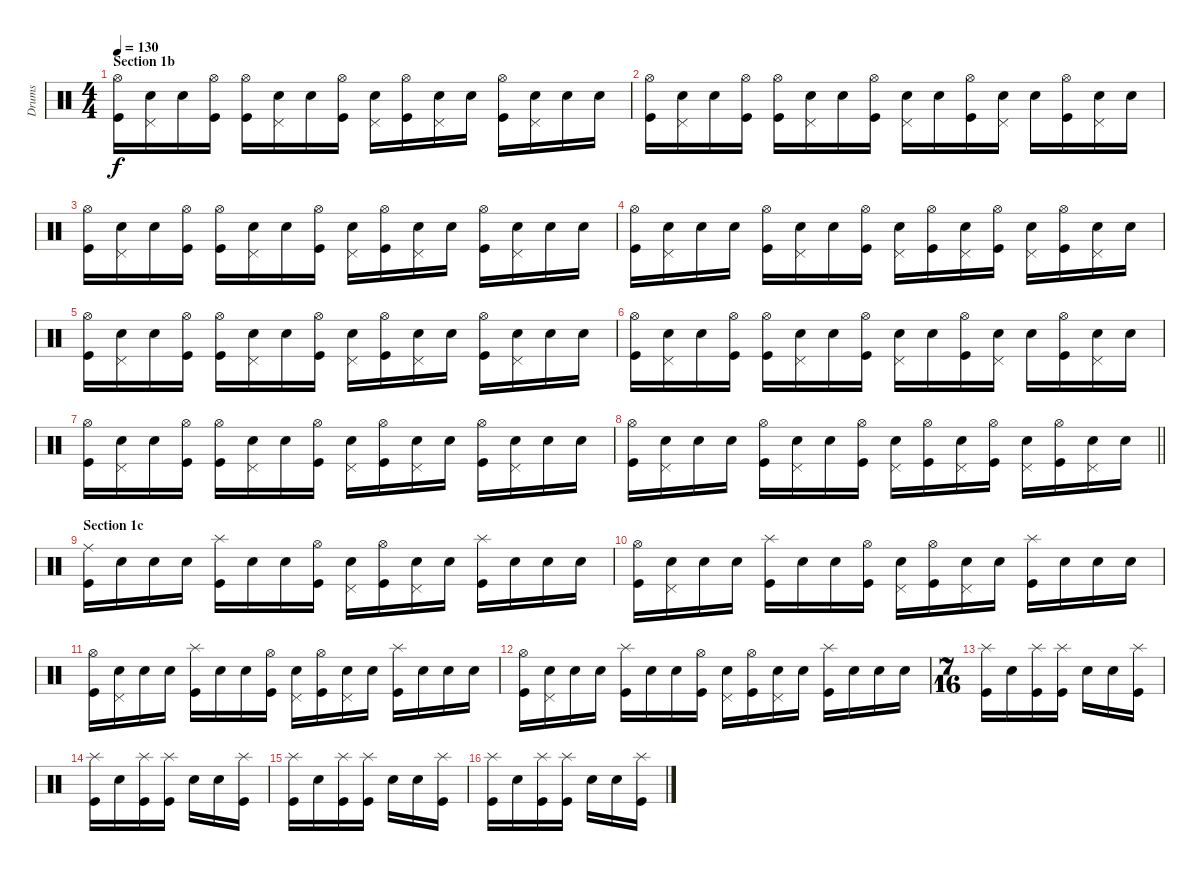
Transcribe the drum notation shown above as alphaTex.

\track ("Drums" "Drums") {instrument percussion}
\staff {score}
\articulation defaults
\ts (4 4)
\section ("" "Section 1b")
\tempo 130
\clef neutral
\ks c
("Hi-Hat (open)" "Kick (hit)").16{dy f} ("Pedal Hi-Hat (hit)" "Snare (hit) 2").16 "Snare (hit) 2".16 ("Hi-Hat (open)" "Kick (hit)").16 ("Hi-Hat (open)" "Kick (hit)").16 ("Pedal Hi-Hat (hit)" "Snare (hit) 2").16 "Snare (hit) 2".16 ("Hi-Hat (open)" "Kick (hit)").16 ("Pedal Hi-Hat (hit)" "Snare (hit) 2").16 ("Hi-Hat (open)" "Kick (hit)").16 ("Pedal Hi-Hat (hit)" "Snare (hit) 2").16 "Snare (hit) 2".16 ("Hi-Hat (open)" "Kick (hit)").16 ("Pedal Hi-Hat (hit)" "Snare (hit) 2").16 "Snare (hit) 2".16 "Snare (hit) 2".16 |
("Hi-Hat (open)" "Kick (hit)").16 ("Pedal Hi-Hat (hit)" "Snare (hit) 2").16 "Snare (hit) 2".16 ("Hi-Hat (open)" "Kick (hit)").16 ("Hi-Hat (open)" "Kick (hit)").16 ("Pedal Hi-Hat (hit)" "Snare (hit) 2").16 "Snare (hit) 2".16 ("Hi-Hat (open)" "Kick (hit)").16 ("Pedal Hi-Hat (hit)" "Snare (hit) 2").16 "Snare (hit) 2".16 ("Hi-Hat (open)" "Kick (hit)").16 ("Pedal Hi-Hat (hit)" "Snare (hit) 2").16 "Snare (hit) 2".16 ("Hi-Hat (open)" "Kick (hit)").16 ("Pedal Hi-Hat (hit)" "Snare (hit) 2").16 "Snare (hit) 2".16 |
("Hi-Hat (open)" "Kick (hit)").16 ("Pedal Hi-Hat (hit)" "Snare (hit) 2").16 "Snare (hit) 2".16 ("Hi-Hat (open)" "Kick (hit)").16 ("Hi-Hat (open)" "Kick (hit)").16 ("Pedal Hi-Hat (hit)" "Snare (hit) 2").16 "Snare (hit) 2".16 ("Hi-Hat (open)" "Kick (hit)").16 ("Pedal Hi-Hat (hit)" "Snare (hit) 2").16 ("Hi-Hat (open)" "Kick (hit)").16 ("Pedal Hi-Hat (hit)" "Snare (hit) 2").16 "Snare (hit) 2".16 ("Hi-Hat (open)" "Kick (hit)").16 ("Pedal Hi-Hat (hit)" "Snare (hit) 2").16 "Snare (hit) 2".16 "Snare (hit) 2".16 |
("Hi-Hat (open)" "Kick (hit)").16 ("Pedal Hi-Hat (hit)" "Snare (hit) 2").16 "Snare (hit) 2".16 "Snare (hit) 2".16 ("Hi-Hat (open)" "Kick (hit)").16 ("Pedal Hi-Hat (hit)" "Snare (hit) 2").16 "Snare (hit) 2".16 ("Hi-Hat (open)" "Kick (hit)").16 ("Pedal Hi-Hat (hit)" "Snare (hit) 2").16 ("Hi-Hat (open)" "Kick (hit)").16 ("Pedal Hi-Hat (hit)" "Snare (hit) 2").16 ("Hi-Hat (open)" "Kick (hit)").16 ("Pedal Hi-Hat (hit)" "Snare (hit) 2").16 ("Hi-Hat (open)" "Kick (hit)").16 ("Pedal Hi-Hat (hit)" "Snare (hit) 2").16 "Snare (hit) 2".16 |
("Hi-Hat (open)" "Kick (hit)").16 ("Pedal Hi-Hat (hit)" "Snare (hit) 2").16 "Snare (hit) 2".16 ("Hi-Hat (open)" "Kick (hit)").16 ("Hi-Hat (open)" "Kick (hit)").16 ("Pedal Hi-Hat (hit)" "Snare (hit) 2").16 "Snare (hit) 2".16 ("Hi-Hat (open)" "Kick (hit)").16 ("Pedal Hi-Hat (hit)" "Snare (hit) 2").16 ("Hi-Hat (open)" "Kick (hit)").16 ("Pedal Hi-Hat (hit)" "Snare (hit) 2").16 "Snare (hit) 2".16 ("Hi-Hat (open)" "Kick (hit)").16 ("Pedal Hi-Hat (hit)" "Snare (hit) 2").16 "Snare (hit) 2".16 "Snare (hit) 2".16 |
("Hi-Hat (open)" "Kick (hit)").16 ("Pedal Hi-Hat (hit)" "Snare (hit) 2").16 "Snare (hit) 2".16 ("Hi-Hat (open)" "Kick (hit)").16 ("Hi-Hat (open)" "Kick (hit)").16 ("Pedal Hi-Hat (hit)" "Snare (hit) 2").16 "Snare (hit) 2".16 ("Hi-Hat (open)" "Kick (hit)").16 ("Pedal Hi-Hat (hit)" "Snare (hit) 2").16 "Snare (hit) 2".16 ("Hi-Hat (open)" "Kick (hit)").16 ("Pedal Hi-Hat (hit)" "Snare (hit) 2").16 "Snare (hit) 2".16 ("Hi-Hat (open)" "Kick (hit)").16 ("Pedal Hi-Hat (hit)" "Snare (hit) 2").16 "Snare (hit) 2".16 |
("Hi-Hat (open)" "Kick (hit)").16 ("Pedal Hi-Hat (hit)" "Snare (hit) 2").16 "Snare (hit) 2".16 ("Hi-Hat (open)" "Kick (hit)").16 ("Hi-Hat (open)" "Kick (hit)").16 ("Pedal Hi-Hat (hit)" "Snare (hit) 2").16 "Snare (hit) 2".16 ("Hi-Hat (open)" "Kick (hit)").16 ("Pedal Hi-Hat (hit)" "Snare (hit) 2").16 ("Hi-Hat (open)" "Kick (hit)").16 ("Pedal Hi-Hat (hit)" "Snare (hit) 2").16 "Snare (hit) 2".16 ("Hi-Hat (open)" "Kick (hit)").16 ("Pedal Hi-Hat (hit)" "Snare (hit) 2").16 "Snare (hit) 2".16 "Snare (hit) 2".16 |
\barLineRight lightlight
("Hi-Hat (open)" "Kick (hit)").16 ("Pedal Hi-Hat (hit)" "Snare (hit) 2").16 "Snare (hit) 2".16 "Snare (hit) 2".16 ("Hi-Hat (open)" "Kick (hit)").16 ("Pedal Hi-Hat (hit)" "Snare (hit) 2").16 "Snare (hit) 2".16 ("Hi-Hat (open)" "Kick (hit)").16 ("Pedal Hi-Hat (hit)" "Snare (hit) 2").16 ("Hi-Hat (open)" "Kick (hit)").16 ("Pedal Hi-Hat (hit)" "Snare (hit) 2").16 ("Hi-Hat (open)" "Kick (hit)").16 ("Pedal Hi-Hat (hit)" "Snare (hit) 2").16 ("Hi-Hat (open)" "Kick (hit)").16 ("Pedal Hi-Hat (hit)" "Snare (hit) 2").16 "Snare (hit) 2".16 |
\section ("" "Section 1c")
("Ride (middle)" "Kick (hit)").16 "Snare (hit) 2".16 "Snare (hit) 2".16 "Snare (hit) 2".16 ("Splash (hit)" "Kick (hit)").16 "Snare (hit) 2".16 "Snare (hit) 2".16 ("Hi-Hat (open)" "Kick (hit)").16 ("Pedal Hi-Hat (hit)" "Snare (hit) 2").16 ("Hi-Hat (open)" "Kick (hit)").16 ("Pedal Hi-Hat (hit)" "Snare (hit) 2").16 "Snare (hit) 2".16 ("Splash (hit)" "Kick (hit)").16 "Snare (hit) 2".16 "Snare (hit) 2".16 "Snare (hit) 2".16 |
("Hi-Hat (open)" "Kick (hit)").16 ("Pedal Hi-Hat (hit)" "Snare (hit) 2").16 "Snare (hit) 2".16 "Snare (hit) 2".16 ("Splash (hit)" "Kick (hit)").16 "Snare (hit) 2".16 "Snare (hit) 2".16 ("Hi-Hat (open)" "Kick (hit)").16 ("Pedal Hi-Hat (hit)" "Snare (hit) 2").16 ("Hi-Hat (open)" "Kick (hit)").16 ("Pedal Hi-Hat (hit)" "Snare (hit) 2").16 "Snare (hit) 2".16 ("Splash (hit)" "Kick (hit)").16 "Snare (hit) 2".16 "Snare (hit) 2".16 "Snare (hit) 2".16 |
("Hi-Hat (open)" "Kick (hit)").16 ("Pedal Hi-Hat (hit)" "Snare (hit) 2").16 "Snare (hit) 2".16 "Snare (hit) 2".16 ("Splash (hit)" "Kick (hit)").16 "Snare (hit) 2".16 "Snare (hit) 2".16 ("Hi-Hat (open)" "Kick (hit)").16 ("Pedal Hi-Hat (hit)" "Snare (hit) 2").16 ("Hi-Hat (open)" "Kick (hit)").16 ("Pedal Hi-Hat (hit)" "Snare (hit) 2").16 "Snare (hit) 2".16 ("Splash (hit)" "Kick (hit)").16 "Snare (hit) 2".16 "Snare (hit) 2".16 "Snare (hit) 2".16 |
("Hi-Hat (open)" "Kick (hit)").16 ("Pedal Hi-Hat (hit)" "Snare (hit) 2").16 "Snare (hit) 2".16 "Snare (hit) 2".16 ("Splash (hit)" "Kick (hit)").16 "Snare (hit) 2".16 "Snare (hit) 2".16 ("Hi-Hat (open)" "Kick (hit)").16 ("Pedal Hi-Hat (hit)" "Snare (hit) 2").16 ("Hi-Hat (open)" "Kick (hit)").16 ("Pedal Hi-Hat (hit)" "Snare (hit) 2").16 "Snare (hit) 2".16 ("Splash (hit)" "Kick (hit)").16 "Snare (hit) 2".16 "Snare (hit) 2".16 "Snare (hit) 2".16 |
\ts (7 16)
("Splash (hit)" "Kick (hit)").16 "Snare (hit) 2".16 ("Splash (hit)" "Kick (hit)").16 ("Splash (hit)" "Kick (hit)").16 "Snare (hit) 2".16 "Snare (hit) 2".16 ("Splash (hit)" "Kick (hit)").16 |
("Splash (hit)" "Kick (hit)").16 "Snare (hit) 2".16 ("Splash (hit)" "Kick (hit)").16 ("Splash (hit)" "Kick (hit)").16 "Snare (hit) 2".16 "Snare (hit) 2".16 ("Splash (hit)" "Kick (hit)").16 |
("Splash (hit)" "Kick (hit)").16 "Snare (hit) 2".16 ("Splash (hit)" "Kick (hit)").16 ("Splash (hit)" "Kick (hit)").16 "Snare (hit) 2".16 "Snare (hit) 2".16 ("Splash (hit)" "Kick (hit)").16 |
("Splash (hit)" "Kick (hit)").16 "Snare (hit) 2".16 ("Splash (hit)" "Kick (hit)").16 ("Splash (hit)" "Kick (hit)").16 "Snare (hit) 2".16 "Snare (hit) 2".16 ("Splash (hit)" "Kick (hit)").16
